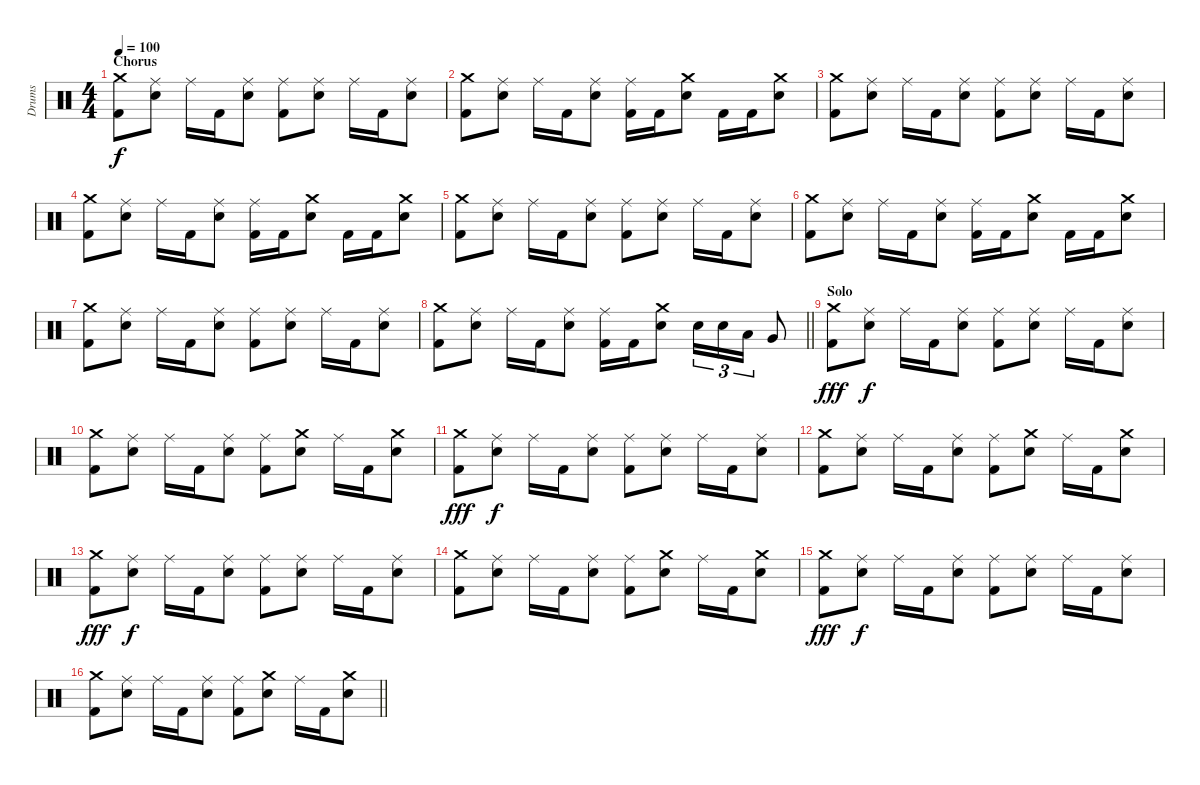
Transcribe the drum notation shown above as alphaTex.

\track ("Drums" "Drums") {instrument percussion}
\staff {score}
\articulation defaults
\ts (4 4)
\section ("" "Chorus")
\tempo 100
\clef neutral
\ks c
("Crash medium (hit)" "Kick (hit) 2").8{dy f} ("Ride (middle)" "Electric Snare (hit)").8 "Ride (middle)".16 "Kick (hit) 2".16 ("Ride (middle)" "Electric Snare (hit)").8 ("Ride (middle)" "Kick (hit) 2").8 ("Ride (middle)" "Electric Snare (hit)").8 "Ride (middle)".16 "Kick (hit) 2".16 ("Ride (middle)" "Electric Snare (hit)").8 |
("Crash medium (hit)" "Kick (hit) 2").8 ("Ride (middle)" "Electric Snare (hit)").8 "Ride (middle)".16 "Kick (hit) 2".16 ("Ride (middle)" "Electric Snare (hit)").8 ("Ride (middle)" "Kick (hit) 2").16 "Kick (hit) 2".16 ("Crash medium (hit)" "Electric Snare (hit)").8 "Kick (hit) 2".16 "Kick (hit) 2".16 ("Crash medium (hit)" "Electric Snare (hit)").8 |
("Crash medium (hit)" "Kick (hit) 2").8 ("Ride (middle)" "Electric Snare (hit)").8 "Ride (middle)".16 "Kick (hit) 2".16 ("Ride (middle)" "Electric Snare (hit)").8 ("Ride (middle)" "Kick (hit) 2").8 ("Ride (middle)" "Electric Snare (hit)").8 "Ride (middle)".16 "Kick (hit) 2".16 ("Ride (middle)" "Electric Snare (hit)").8 |
("Crash medium (hit)" "Kick (hit) 2").8 ("Ride (middle)" "Electric Snare (hit)").8 "Ride (middle)".16 "Kick (hit) 2".16 ("Ride (middle)" "Electric Snare (hit)").8 ("Ride (middle)" "Kick (hit) 2").16 "Kick (hit) 2".16 ("Crash medium (hit)" "Electric Snare (hit)").8 "Kick (hit) 2".16 "Kick (hit) 2".16 ("Crash medium (hit)" "Electric Snare (hit)").8 |
("Crash medium (hit)" "Kick (hit) 2").8 ("Ride (middle)" "Electric Snare (hit)").8 "Ride (middle)".16 "Kick (hit) 2".16 ("Ride (middle)" "Electric Snare (hit)").8 ("Ride (middle)" "Kick (hit) 2").8 ("Ride (middle)" "Electric Snare (hit)").8 "Ride (middle)".16 "Kick (hit) 2".16 ("Ride (middle)" "Electric Snare (hit)").8 |
("Crash medium (hit)" "Kick (hit) 2").8 ("Ride (middle)" "Electric Snare (hit)").8 "Ride (middle)".16 "Kick (hit) 2".16 ("Ride (middle)" "Electric Snare (hit)").8 ("Ride (middle)" "Kick (hit) 2").16 "Kick (hit) 2".16 ("Crash medium (hit)" "Electric Snare (hit)").8 "Kick (hit) 2".16 "Kick (hit) 2".16 ("Crash medium (hit)" "Electric Snare (hit)").8 |
("Crash medium (hit)" "Kick (hit) 2").8 ("Ride (middle)" "Electric Snare (hit)").8 "Ride (middle)".16 "Kick (hit) 2".16 ("Ride (middle)" "Electric Snare (hit)").8 ("Ride (middle)" "Kick (hit) 2").8 ("Ride (middle)" "Electric Snare (hit)").8 "Ride (middle)".16 "Kick (hit) 2".16 ("Ride (middle)" "Electric Snare (hit)").8 |
\barLineRight lightlight
("Crash medium (hit)" "Kick (hit) 2").8 ("Ride (middle)" "Electric Snare (hit)").8 "Ride (middle)".16 "Kick (hit) 2".16 ("Ride (middle)" "Electric Snare (hit)").8 ("Ride (middle)" "Kick (hit) 2").16 "Kick (hit) 2".16 ("Crash medium (hit)" "Electric Snare (hit)").8 "Electric Snare (hit)".16{tu (3 2)} "Electric Snare (hit)".16{tu (3 2)} "Low Tom (hit)".16{tu (3 2)} "Very Low Tom (hit)".8 |
\section ("" "Solo")
("Crash medium (hit)" "Kick (hit) 2").8{dy fff} ("Ride (middle)" "Electric Snare (hit)").8{dy f} "Ride (middle)".16 "Kick (hit) 2".16 ("Ride (middle)" "Electric Snare (hit)").8 ("Ride (middle)" "Kick (hit) 2").8 ("Ride (middle)" "Electric Snare (hit)").8 "Ride (middle)".16 "Kick (hit) 2".16 ("Ride (middle)" "Electric Snare (hit)").8 |
("Crash medium (hit)" "Kick (hit) 2").8 ("Ride (middle)" "Electric Snare (hit)").8 "Ride (middle)".16 "Kick (hit) 2".16 ("Ride (middle)" "Electric Snare (hit)").8 ("Ride (middle)" "Kick (hit) 2").8 ("Crash medium (hit)" "Electric Snare (hit)").8 "Ride (middle)".16 "Kick (hit) 2".16 ("Crash medium (hit)" "Electric Snare (hit)").8 |
("Crash medium (hit)" "Kick (hit) 2").8{dy fff} ("Ride (middle)" "Electric Snare (hit)").8{dy f} "Ride (middle)".16 "Kick (hit) 2".16 ("Ride (middle)" "Electric Snare (hit)").8 ("Ride (middle)" "Kick (hit) 2").8 ("Ride (middle)" "Electric Snare (hit)").8 "Ride (middle)".16 "Kick (hit) 2".16 ("Ride (middle)" "Electric Snare (hit)").8 |
("Crash medium (hit)" "Kick (hit) 2").8 ("Ride (middle)" "Electric Snare (hit)").8 "Ride (middle)".16 "Kick (hit) 2".16 ("Ride (middle)" "Electric Snare (hit)").8 ("Ride (middle)" "Kick (hit) 2").8 ("Crash medium (hit)" "Electric Snare (hit)").8 "Ride (middle)".16 "Kick (hit) 2".16 ("Crash medium (hit)" "Electric Snare (hit)").8 |
("Crash medium (hit)" "Kick (hit) 2").8{dy fff} ("Ride (middle)" "Electric Snare (hit)").8{dy f} "Ride (middle)".16 "Kick (hit) 2".16 ("Ride (middle)" "Electric Snare (hit)").8 ("Ride (middle)" "Kick (hit) 2").8 ("Ride (middle)" "Electric Snare (hit)").8 "Ride (middle)".16 "Kick (hit) 2".16 ("Ride (middle)" "Electric Snare (hit)").8 |
("Crash medium (hit)" "Kick (hit) 2").8 ("Ride (middle)" "Electric Snare (hit)").8 "Ride (middle)".16 "Kick (hit) 2".16 ("Ride (middle)" "Electric Snare (hit)").8 ("Ride (middle)" "Kick (hit) 2").8 ("Crash medium (hit)" "Electric Snare (hit)").8 "Ride (middle)".16 "Kick (hit) 2".16 ("Crash medium (hit)" "Electric Snare (hit)").8 |
("Crash medium (hit)" "Kick (hit) 2").8{dy fff} ("Ride (middle)" "Electric Snare (hit)").8{dy f} "Ride (middle)".16 "Kick (hit) 2".16 ("Ride (middle)" "Electric Snare (hit)").8 ("Ride (middle)" "Kick (hit) 2").8 ("Ride (middle)" "Electric Snare (hit)").8 "Ride (middle)".16 "Kick (hit) 2".16 ("Ride (middle)" "Electric Snare (hit)").8 |
\barLineRight lightlight
("Crash medium (hit)" "Kick (hit) 2").8 ("Ride (middle)" "Electric Snare (hit)").8 "Ride (middle)".16 "Kick (hit) 2".16 ("Ride (middle)" "Electric Snare (hit)").8 ("Ride (middle)" "Kick (hit) 2").8 ("Crash medium (hit)" "Electric Snare (hit)").8 "Ride (middle)".16 "Kick (hit) 2".16 ("Crash medium (hit)" "Electric Snare (hit)").8
